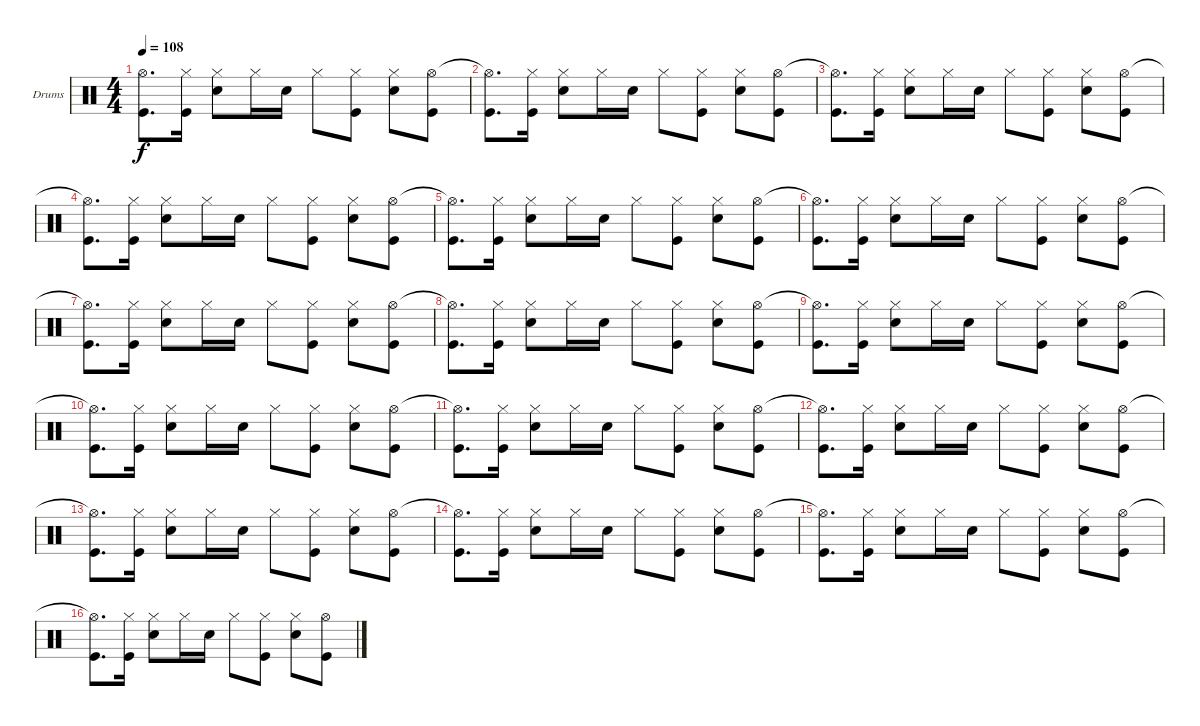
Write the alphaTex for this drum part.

\bracketExtendMode groupsimilarinstruments
\firstSystemTrackNameOrientation horizontal
\otherSystemsTrackNameOrientation horizontal
\track ("Drumkit" "Drums") {instrument percussion}
\staff {score}
\articulation defaults
\ts (4 4)
\tempo 108
\clef neutral
\ks c
("Hi-Hat (open)"{t} "Kick (hit)").8{d dy f} ("Hi-Hat (closed)" "Kick (hit)").16 ("Hi-Hat (closed)" "Snare (hit) 2").8 "Hi-Hat (closed)".16 "Snare (hit) 2".16 "Hi-Hat (closed)".8 ("Hi-Hat (closed)" "Kick (hit)").8 ("Hi-Hat (closed)" "Snare (hit) 2").8 ("Hi-Hat (open)" "Kick (hit)").8 |
("Hi-Hat (open)"{t} "Kick (hit)").8{d} ("Hi-Hat (closed)" "Kick (hit)").16 ("Hi-Hat (closed)" "Snare (hit) 2").8 "Hi-Hat (closed)".16 "Snare (hit) 2".16 "Hi-Hat (closed)".8 ("Hi-Hat (closed)" "Kick (hit)").8 ("Hi-Hat (closed)" "Snare (hit) 2").8 ("Hi-Hat (open)" "Kick (hit)").8 |
("Hi-Hat (open)"{t} "Kick (hit)").8{d} ("Hi-Hat (closed)" "Kick (hit)").16 ("Hi-Hat (closed)" "Snare (hit) 2").8 "Hi-Hat (closed)".16 "Snare (hit) 2".16 "Hi-Hat (closed)".8 ("Hi-Hat (closed)" "Kick (hit)").8 ("Hi-Hat (closed)" "Snare (hit) 2").8 ("Hi-Hat (open)" "Kick (hit)").8 |
("Hi-Hat (open)"{t} "Kick (hit)").8{d} ("Hi-Hat (closed)" "Kick (hit)").16 ("Hi-Hat (closed)" "Snare (hit) 2").8 "Hi-Hat (closed)".16 "Snare (hit) 2".16 "Hi-Hat (closed)".8 ("Hi-Hat (closed)" "Kick (hit)").8 ("Hi-Hat (closed)" "Snare (hit) 2").8 ("Hi-Hat (open)" "Kick (hit)").8 |
("Hi-Hat (open)"{t} "Kick (hit)").8{d} ("Hi-Hat (closed)" "Kick (hit)").16 ("Hi-Hat (closed)" "Snare (hit) 2").8 "Hi-Hat (closed)".16 "Snare (hit) 2".16 "Hi-Hat (closed)".8 ("Hi-Hat (closed)" "Kick (hit)").8 ("Hi-Hat (closed)" "Snare (hit) 2").8 ("Hi-Hat (open)" "Kick (hit)").8 |
("Hi-Hat (open)"{t} "Kick (hit)").8{d} ("Hi-Hat (closed)" "Kick (hit)").16 ("Hi-Hat (closed)" "Snare (hit) 2").8 "Hi-Hat (closed)".16 "Snare (hit) 2".16 "Hi-Hat (closed)".8 ("Hi-Hat (closed)" "Kick (hit)").8 ("Hi-Hat (closed)" "Snare (hit) 2").8 ("Hi-Hat (open)" "Kick (hit)").8 |
("Hi-Hat (open)"{t} "Kick (hit)").8{d} ("Hi-Hat (closed)" "Kick (hit)").16 ("Hi-Hat (closed)" "Snare (hit) 2").8 "Hi-Hat (closed)".16 "Snare (hit) 2".16 "Hi-Hat (closed)".8 ("Hi-Hat (closed)" "Kick (hit)").8 ("Hi-Hat (closed)" "Snare (hit) 2").8 ("Hi-Hat (open)" "Kick (hit)").8 |
("Hi-Hat (open)"{t} "Kick (hit)").8{d} ("Hi-Hat (closed)" "Kick (hit)").16 ("Hi-Hat (closed)" "Snare (hit) 2").8 "Hi-Hat (closed)".16 "Snare (hit) 2".16 "Hi-Hat (closed)".8 ("Hi-Hat (closed)" "Kick (hit)").8 ("Hi-Hat (closed)" "Snare (hit) 2").8 ("Hi-Hat (open)" "Kick (hit)").8 |
("Hi-Hat (open)"{t} "Kick (hit)").8{d} ("Hi-Hat (closed)" "Kick (hit)").16 ("Hi-Hat (closed)" "Snare (hit) 2").8 "Hi-Hat (closed)".16 "Snare (hit) 2".16 "Hi-Hat (closed)".8 ("Hi-Hat (closed)" "Kick (hit)").8 ("Hi-Hat (closed)" "Snare (hit) 2").8 ("Hi-Hat (open)" "Kick (hit)").8 |
("Hi-Hat (open)"{t} "Kick (hit)").8{d} ("Hi-Hat (closed)" "Kick (hit)").16 ("Hi-Hat (closed)" "Snare (hit) 2").8 "Hi-Hat (closed)".16 "Snare (hit) 2".16 "Hi-Hat (closed)".8 ("Hi-Hat (closed)" "Kick (hit)").8 ("Hi-Hat (closed)" "Snare (hit) 2").8 ("Hi-Hat (open)" "Kick (hit)").8 |
("Hi-Hat (open)"{t} "Kick (hit)").8{d} ("Hi-Hat (closed)" "Kick (hit)").16 ("Hi-Hat (closed)" "Snare (hit) 2").8 "Hi-Hat (closed)".16 "Snare (hit) 2".16 "Hi-Hat (closed)".8 ("Hi-Hat (closed)" "Kick (hit)").8 ("Hi-Hat (closed)" "Snare (hit) 2").8 ("Hi-Hat (open)" "Kick (hit)").8 |
("Hi-Hat (open)"{t} "Kick (hit)").8{d} ("Hi-Hat (closed)" "Kick (hit)").16 ("Hi-Hat (closed)" "Snare (hit) 2").8 "Hi-Hat (closed)".16 "Snare (hit) 2".16 "Hi-Hat (closed)".8 ("Hi-Hat (closed)" "Kick (hit)").8 ("Hi-Hat (closed)" "Snare (hit) 2").8 ("Hi-Hat (open)" "Kick (hit)").8 |
("Hi-Hat (open)"{t} "Kick (hit)").8{d} ("Hi-Hat (closed)" "Kick (hit)").16 ("Hi-Hat (closed)" "Snare (hit) 2").8 "Hi-Hat (closed)".16 "Snare (hit) 2".16 "Hi-Hat (closed)".8 ("Hi-Hat (closed)" "Kick (hit)").8 ("Hi-Hat (closed)" "Snare (hit) 2").8 ("Hi-Hat (open)" "Kick (hit)").8 |
("Hi-Hat (open)"{t} "Kick (hit)").8{d} ("Hi-Hat (closed)" "Kick (hit)").16 ("Hi-Hat (closed)" "Snare (hit) 2").8 "Hi-Hat (closed)".16 "Snare (hit) 2".16 "Hi-Hat (closed)".8 ("Hi-Hat (closed)" "Kick (hit)").8 ("Hi-Hat (closed)" "Snare (hit) 2").8 ("Hi-Hat (open)" "Kick (hit)").8 |
("Hi-Hat (open)"{t} "Kick (hit)").8{d} ("Hi-Hat (closed)" "Kick (hit)").16 ("Hi-Hat (closed)" "Snare (hit) 2").8 "Hi-Hat (closed)".16 "Snare (hit) 2".16 "Hi-Hat (closed)".8 ("Hi-Hat (closed)" "Kick (hit)").8 ("Hi-Hat (closed)" "Snare (hit) 2").8 ("Hi-Hat (open)" "Kick (hit)").8 |
("Hi-Hat (open)"{t} "Kick (hit)").8{d} ("Hi-Hat (closed)" "Kick (hit)").16 ("Hi-Hat (closed)" "Snare (hit) 2").8 "Hi-Hat (closed)".16 "Snare (hit) 2".16 "Hi-Hat (closed)".8 ("Hi-Hat (closed)" "Kick (hit)").8 ("Hi-Hat (closed)" "Snare (hit) 2").8 ("Hi-Hat (open)" "Kick (hit)").8
